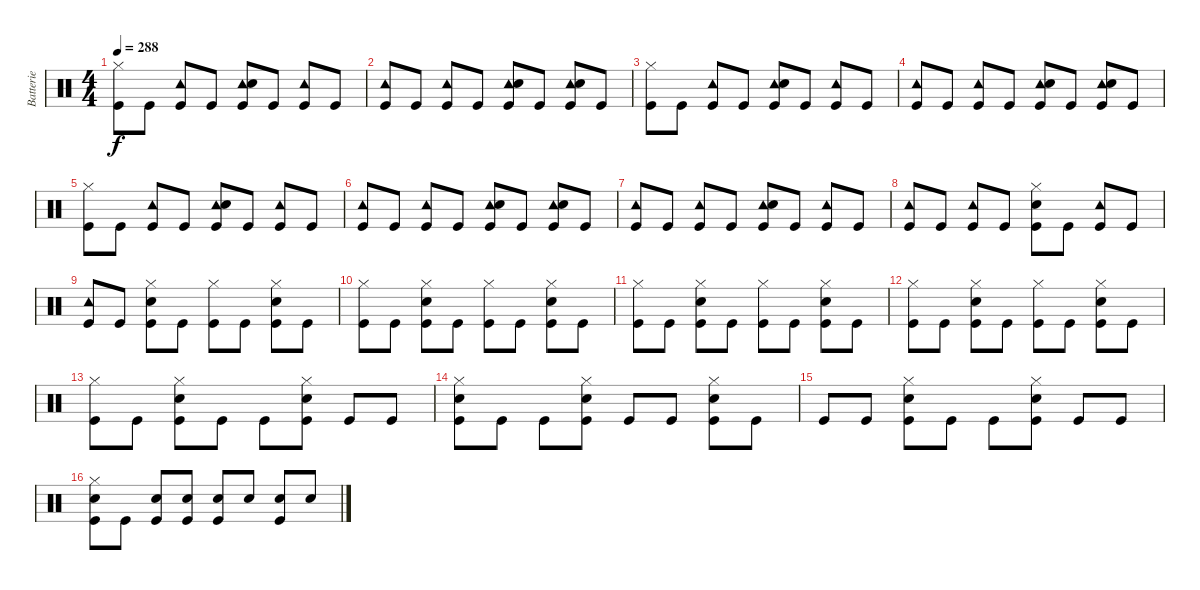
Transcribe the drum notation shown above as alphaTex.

\track ("Batterie" "Batterie") {instrument percussion}
\staff {score}
\articulation defaults
\ts (4 4)
\tempo 288
\clef neutral
\ks c
("Hi-Hat (closed)" "Kick (hit)").8{dy f} "Kick (hit)".8 ("Tambourine (hit)" "Kick (hit)").8 "Kick (hit)".8 ("Tambourine (hit)" "Snare (hit) 2" "Kick (hit)").8 "Kick (hit)".8 ("Tambourine (hit)" "Kick (hit)").8 "Kick (hit)".8 |
("Tambourine (hit)" "Kick (hit)").8 "Kick (hit)".8 ("Tambourine (hit)" "Kick (hit)").8 "Kick (hit)".8 ("Tambourine (hit)" "Snare (hit) 2" "Kick (hit)").8 "Kick (hit)".8 ("Tambourine (hit)" "Snare (hit) 2" "Kick (hit)").8 "Kick (hit)".8 |
("Hi-Hat (closed)" "Kick (hit)").8 "Kick (hit)".8 ("Tambourine (hit)" "Kick (hit)").8 "Kick (hit)".8 ("Tambourine (hit)" "Snare (hit) 2" "Kick (hit)").8 "Kick (hit)".8 ("Tambourine (hit)" "Kick (hit)").8 "Kick (hit)".8 |
("Tambourine (hit)" "Kick (hit)").8 "Kick (hit)".8 ("Tambourine (hit)" "Kick (hit)").8 "Kick (hit)".8 ("Tambourine (hit)" "Snare (hit) 2" "Kick (hit)").8 "Kick (hit)".8 ("Tambourine (hit)" "Snare (hit) 2" "Kick (hit)").8 "Kick (hit)".8 |
("Hi-Hat (closed)" "Kick (hit)").8 "Kick (hit)".8 ("Tambourine (hit)" "Kick (hit)").8 "Kick (hit)".8 ("Tambourine (hit)" "Snare (hit) 2" "Kick (hit)").8 "Kick (hit)".8 ("Tambourine (hit)" "Kick (hit)").8 "Kick (hit)".8 |
("Tambourine (hit)" "Kick (hit)").8 "Kick (hit)".8 ("Tambourine (hit)" "Kick (hit)").8 "Kick (hit)".8 ("Tambourine (hit)" "Snare (hit) 2" "Kick (hit)").8 "Kick (hit)".8 ("Tambourine (hit)" "Snare (hit) 2" "Kick (hit)").8 "Kick (hit)".8 |
("Tambourine (hit)" "Kick (hit)").8 "Kick (hit)".8 ("Tambourine (hit)" "Kick (hit)").8 "Kick (hit)".8 ("Tambourine (hit)" "Snare (hit) 2" "Kick (hit)").8 "Kick (hit)".8 ("Tambourine (hit)" "Kick (hit)").8 "Kick (hit)".8 |
("Tambourine (hit)" "Kick (hit)").8 "Kick (hit)".8 ("Tambourine (hit)" "Kick (hit)").8 "Kick (hit)".8 ("Hi-Hat (closed)" "Snare (hit) 2" "Kick (hit)").8 "Kick (hit)".8 ("Tambourine (hit)" "Kick (hit)").8 "Kick (hit)".8 |
("Tambourine (hit)" "Kick (hit)").8 "Kick (hit)".8 ("Hi-Hat (closed)" "Snare (hit) 2" "Kick (hit)").8 "Kick (hit)".8 ("Hi-Hat (closed)" "Kick (hit)").8 "Kick (hit)".8 ("Hi-Hat (closed)" "Snare (hit) 2" "Kick (hit)").8 "Kick (hit)".8 |
("Hi-Hat (closed)" "Kick (hit)").8 "Kick (hit)".8 ("Hi-Hat (closed)" "Snare (hit) 2" "Kick (hit)").8 "Kick (hit)".8 ("Hi-Hat (closed)" "Kick (hit)").8 "Kick (hit)".8 ("Hi-Hat (closed)" "Snare (hit) 2" "Kick (hit)").8 "Kick (hit)".8 |
("Hi-Hat (closed)" "Kick (hit)").8 "Kick (hit)".8 ("Hi-Hat (closed)" "Snare (hit) 2" "Kick (hit)").8 "Kick (hit)".8 ("Hi-Hat (closed)" "Kick (hit)").8 "Kick (hit)".8 ("Hi-Hat (closed)" "Snare (hit) 2" "Kick (hit)").8 "Kick (hit)".8 |
("Hi-Hat (closed)" "Kick (hit)").8 "Kick (hit)".8 ("Hi-Hat (closed)" "Snare (hit) 2" "Kick (hit)").8 "Kick (hit)".8 ("Hi-Hat (closed)" "Kick (hit)").8 "Kick (hit)".8 ("Hi-Hat (closed)" "Snare (hit) 2" "Kick (hit)").8 "Kick (hit)".8 |
("Hi-Hat (closed)" "Kick (hit)").8 "Kick (hit)".8 ("Hi-Hat (closed)" "Snare (hit) 2" "Kick (hit)").8 "Kick (hit)".8 "Kick (hit)".8 ("Hi-Hat (closed)" "Snare (hit) 2" "Kick (hit)").8 "Kick (hit)".8 "Kick (hit)".8 |
("Hi-Hat (closed)" "Snare (hit) 2" "Kick (hit)").8 "Kick (hit)".8 "Kick (hit)".8 ("Hi-Hat (closed)" "Snare (hit) 2" "Kick (hit)").8 "Kick (hit)".8 "Kick (hit)".8 ("Hi-Hat (closed)" "Snare (hit) 2" "Kick (hit)").8 "Kick (hit)".8 |
"Kick (hit)".8 "Kick (hit)".8 ("Hi-Hat (closed)" "Snare (hit) 2" "Kick (hit)").8 "Kick (hit)".8 "Kick (hit)".8 ("Hi-Hat (closed)" "Snare (hit) 2" "Kick (hit)").8 "Kick (hit)".8 "Kick (hit)".8 |
("Hi-Hat (closed)" "Snare (hit) 2" "Kick (hit)").8 "Kick (hit)".8 ("Snare (hit) 2" "Kick (hit)").8 ("Snare (hit) 2" "Kick (hit)").8 ("Snare (hit) 2" "Kick (hit)").8 "Snare (hit) 2".8 ("Snare (hit) 2" "Kick (hit)").8 "Snare (hit) 2".8
